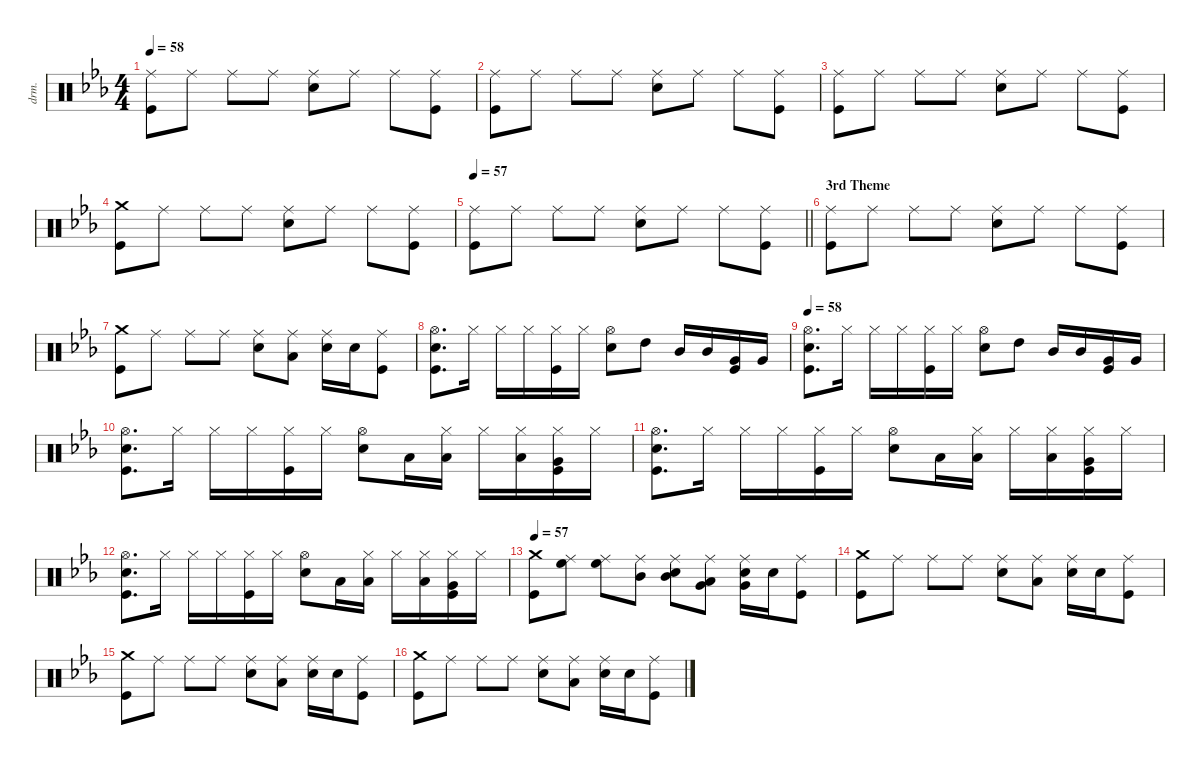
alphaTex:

\defaultSystemsLayout 4
\hideDynamics
\bracketExtendMode groupsimilarinstruments
\otherSystemsTrackNameOrientation horizontal
\track ("Percussion" "drm.") {defaultSystemsLayout 4 instrument percussion}
\staff {score}
\articulation defaults
\ts (4 4)
\tempo 58
\clef neutral
\ks cminor
("Ride (middle)"{acc forcenatural} "Kick (hit)"{acc forcenatural}).8{dy f beam Down} "Ride (middle)"{acc forcenatural}.8{beam Down} "Ride (middle)"{acc forcenatural}.8{beam Down} "Ride (middle)"{acc forcenatural}.8{beam Down} ("Snare (hit) 2"{acc forcenatural} "Ride (middle)"{acc forcenatural}).8{beam Down} "Ride (middle)"{acc forcenatural}.8{beam Down} "Ride (middle)"{acc forcenatural}.8{beam Down} ("Kick (hit)"{acc forcenatural} "Ride (middle)"{acc forcenatural}).8{beam Down} |
("Ride (middle)"{acc forcenatural} "Kick (hit)"{acc forcenatural}).8{beam Down} "Ride (middle)"{acc forcenatural}.8{beam Down} "Ride (middle)"{acc forcenatural}.8{beam Down} "Ride (middle)"{acc forcenatural}.8{beam Down} ("Snare (hit) 2"{acc forcenatural} "Ride (middle)"{acc forcenatural}).8{beam Down} "Ride (middle)"{acc forcenatural}.8{beam Down} "Ride (middle)"{acc forcenatural}.8{beam Down} ("Kick (hit)"{acc forcenatural} "Ride (middle)"{acc forcenatural}).8{beam Down} |
("Ride (middle)"{acc forcenatural} "Kick (hit)"{acc forcenatural}).8{beam Down} "Ride (middle)"{acc forcenatural}.8{beam Down} "Ride (middle)"{acc forcenatural}.8{beam Down} "Ride (middle)"{acc forcenatural}.8{beam Down} ("Snare (hit) 2"{acc forcenatural} "Ride (middle)"{acc forcenatural}).8{beam Down} "Ride (middle)"{acc forcenatural}.8{beam Down} "Ride (middle)"{acc forcenatural}.8{beam Down} ("Kick (hit)"{acc forcenatural} "Ride (middle)"{acc forcenatural}).8{beam Down} |
("Crash medium (hit)"{acc forcenatural} "Kick (hit)"{acc forcenatural}).8{beam Down} "Ride (middle)"{acc forcenatural}.8{beam Down} "Ride (middle)"{acc forcenatural}.8{beam Down} "Ride (middle)"{acc forcenatural}.8{beam Down} ("Snare (hit) 2"{acc forcenatural} "Ride (middle)"{acc forcenatural}).8{beam Down} "Ride (middle)"{acc forcenatural}.8{beam Down} "Ride (middle)"{acc forcenatural}.8{beam Down} ("Kick (hit)"{acc forcenatural} "Ride (middle)"{acc forcenatural}).8{beam Down} |
\tempo 57
\barLineRight lightlight
("Ride (middle)"{acc forcenatural} "Kick (hit)"{acc forcenatural}).8{beam Down} "Ride (middle)"{acc forcenatural}.8{beam Down} "Ride (middle)"{acc forcenatural}.8{beam Down} "Ride (middle)"{acc forcenatural}.8{beam Down} ("Snare (hit) 2"{acc forcenatural} "Ride (middle)"{acc forcenatural}).8{beam Down} "Ride (middle)"{acc forcenatural}.8{beam Down} "Ride (middle)"{acc forcenatural}.8{beam Down} ("Kick (hit)"{acc forcenatural} "Ride (middle)"{acc forcenatural}).8{beam Down} |
\section ("" "3rd Theme")
("Ride (middle)"{acc forcenatural} "Kick (hit)"{acc forcenatural}).8{beam Down} "Ride (middle)"{acc forcenatural}.8{beam Down} "Ride (middle)"{acc forcenatural}.8{beam Down} "Ride (middle)"{acc forcenatural}.8{beam Down} ("Snare (hit) 2"{acc forcenatural} "Ride (middle)"{acc forcenatural}).8{beam Down} "Ride (middle)"{acc forcenatural}.8{beam Down} "Ride (middle)"{acc forcenatural}.8{beam Down} ("Kick (hit)"{acc forcenatural} "Ride (middle)"{acc forcenatural}).8{beam Down} |
("Crash medium (hit)"{acc forcenatural} "Kick (hit)"{acc forcenatural}).8{beam Down} "Ride (middle)"{acc forcenatural}.8{beam Down} "Ride (middle)"{acc forcenatural}.8{beam Down} "Ride (middle)"{acc forcenatural}.8{beam Down} ("Snare (hit) 2"{acc forcenatural} "Ride (middle)"{acc forcenatural}).8{beam Down} ("Low Floor Tom (hit)"{acc forcenatural} "Ride (middle)"{acc forcenatural}).8{beam Down} ("Snare (hit) 2"{acc forcenatural} "Ride (middle)"{acc forcenatural}).16{beam Down} "Snare (hit) 2"{acc forcenatural}.16{beam Down} ("Kick (hit)"{acc forcenatural} "Ride (middle)"{acc forcenatural}).8{beam Down} |
("Hi-Hat (open)"{acc forcenatural} "Kick (hit)"{acc forcenatural} "Snare (hit) 2"{acc forcenatural}).8{d beam Down} "Hi-Hat (closed)"{acc forcenatural}.16{beam Down} "Hi-Hat (closed)"{acc forcenatural}.16{beam Down} "Hi-Hat (closed)"{acc forcenatural}.16{beam Down} ("Kick (hit)"{acc forcenatural} "Hi-Hat (closed)"{acc forcenatural}).16{beam Down} "Hi-Hat (closed)"{acc forcenatural}.16{beam Down} ("Snare (hit) 2"{acc forcenatural} "Hi-Hat (open)"{acc forcenatural}).8{beam Down} "High Tom (hit)"{acc forcenatural}.8{beam Down} "Mid Tom (hit)"{acc forcenatural}.16{beam Up} "Mid Tom (hit)"{acc forcenatural}.16{beam Up} ("Very Low Tom (hit)"{acc forcenatural} "Kick (hit)"{acc forcenatural}).16{beam Up} "Very Low Tom (hit)"{acc forcenatural}.16{beam Up} |
\tempo 58
("Hi-Hat (open)"{acc forcenatural} "Kick (hit)"{acc forcenatural} "Snare (hit) 2"{acc forcenatural}).8{d beam Down} "Hi-Hat (closed)"{acc forcenatural}.16{beam Down} "Hi-Hat (closed)"{acc forcenatural}.16{beam Down} "Hi-Hat (closed)"{acc forcenatural}.16{beam Down} ("Kick (hit)"{acc forcenatural} "Hi-Hat (closed)"{acc forcenatural}).16{beam Down} "Hi-Hat (closed)"{acc forcenatural}.16{beam Down} ("Snare (hit) 2"{acc forcenatural} "Hi-Hat (open)"{acc forcenatural}).8{beam Down} "High Tom (hit)"{acc forcenatural}.8{beam Down} "Mid Tom (hit)"{acc forcenatural}.16{beam Up} "Mid Tom (hit)"{acc forcenatural}.16{beam Up} ("Very Low Tom (hit)"{acc forcenatural} "Kick (hit)"{acc forcenatural}).16{beam Up} "Very Low Tom (hit)"{acc forcenatural}.16{beam Up} |
("Hi-Hat (open)"{acc forcenatural} "Kick (hit)"{acc forcenatural} "Snare (hit) 2"{acc forcenatural}).8{d beam Down} "Hi-Hat (closed)"{acc forcenatural}.16{beam Down} "Hi-Hat (closed)"{acc forcenatural}.16{beam Down} "Hi-Hat (closed)"{acc forcenatural}.16{beam Down} ("Kick (hit)"{acc forcenatural} "Hi-Hat (closed)"{acc forcenatural}).16{beam Down} "Hi-Hat (closed)"{acc forcenatural}.16{beam Down} ("Snare (hit) 2"{acc forcenatural} "Hi-Hat (open)"{acc forcenatural}).8{beam Down} "Low Tom (hit)"{acc forcenatural}.16{beam Down} ("Low Tom (hit)"{acc forcenatural} "Hi-Hat (closed)"{acc forcenatural}).16{beam Down} "Hi-Hat (closed)"{acc forcenatural}.16{beam Down} ("Low Tom (hit)"{acc forcenatural} "Hi-Hat (closed)"{acc forcenatural}).16{beam Down} ("Very Low Tom (hit)"{acc forcenatural} "Kick (hit)"{acc forcenatural} "Hi-Hat (closed)"{acc forcenatural}).16{beam Down} "Hi-Hat (closed)"{acc forcenatural}.16{beam Down} |
("Hi-Hat (open)"{acc forcenatural} "Kick (hit)"{acc forcenatural} "Snare (hit) 2"{acc forcenatural}).8{d beam Down} "Hi-Hat (closed)"{acc forcenatural}.16{beam Down} "Hi-Hat (closed)"{acc forcenatural}.16{beam Down} "Hi-Hat (closed)"{acc forcenatural}.16{beam Down} ("Kick (hit)"{acc forcenatural} "Hi-Hat (closed)"{acc forcenatural}).16{beam Down} "Hi-Hat (closed)"{acc forcenatural}.16{beam Down} ("Snare (hit) 2"{acc forcenatural} "Hi-Hat (open)"{acc forcenatural}).8{beam Down} "Low Tom (hit)"{acc forcenatural}.16{beam Down} ("Low Tom (hit)"{acc forcenatural} "Hi-Hat (closed)"{acc forcenatural}).16{beam Down} "Hi-Hat (closed)"{acc forcenatural}.16{beam Down} ("Low Tom (hit)"{acc forcenatural} "Hi-Hat (closed)"{acc forcenatural}).16{beam Down} ("Very Low Tom (hit)"{acc forcenatural} "Kick (hit)"{acc forcenatural} "Hi-Hat (closed)"{acc forcenatural}).16{beam Down} "Hi-Hat (closed)"{acc forcenatural}.16{beam Down} |
("Hi-Hat (open)"{acc forcenatural} "Kick (hit)"{acc forcenatural} "Snare (hit) 2"{acc forcenatural}).8{d beam Down} "Hi-Hat (closed)"{acc forcenatural}.16{beam Down} "Hi-Hat (closed)"{acc forcenatural}.16{beam Down} "Hi-Hat (closed)"{acc forcenatural}.16{beam Down} ("Kick (hit)"{acc forcenatural} "Hi-Hat (closed)"{acc forcenatural}).16{beam Down} "Hi-Hat (closed)"{acc forcenatural}.16{beam Down} ("Snare (hit) 2"{acc forcenatural} "Hi-Hat (open)"{acc forcenatural}).8{beam Down} "Low Tom (hit)"{acc forcenatural}.16{beam Down} ("Low Tom (hit)"{acc forcenatural} "Hi-Hat (closed)"{acc forcenatural}).16{beam Down} "Hi-Hat (closed)"{acc forcenatural}.16{beam Down} ("Low Tom (hit)"{acc forcenatural} "Hi-Hat (closed)"{acc forcenatural}).16{beam Down} ("Very Low Tom (hit)"{acc forcenatural} "Kick (hit)"{acc forcenatural} "Hi-Hat (closed)"{acc forcenatural}).16{beam Down} "Hi-Hat (closed)"{acc forcenatural}.16{beam Down} |
\tempo 57
("Crash medium (hit)"{acc forcenatural} "Kick (hit)"{acc forcenatural}).8{beam Down} ("High Floor Tom (hit)"{acc forcenatural} "Ride (middle)"{acc forcenatural}).8{beam Down} ("High Floor Tom (hit)"{acc forcenatural} "Ride (middle)"{acc forcenatural}).8{beam Down} ("Mid Tom (hit)"{acc forcenatural} "Ride (middle)"{acc forcenatural}).8{beam Down} ("Mid Tom (hit)"{acc forcenatural} "Snare (hit) 2"{acc forcenatural} "Ride (middle)"{acc forcenatural}).8{beam Down} ("Very Low Tom (hit)"{acc forcenatural} "Low Floor Tom (hit)"{acc forcenatural} "Ride (middle)"{acc forcenatural}).8{beam Down} ("Very Low Tom (hit)"{acc forcenatural} "Snare (hit) 2"{acc forcenatural} "Ride (middle)"{acc forcenatural}).16{beam Down} "Snare (hit) 2"{acc forcenatural}.16{beam Down} ("Kick (hit)"{acc forcenatural} "Ride (middle)"{acc forcenatural}).8{beam Down} |
("Crash medium (hit)"{acc forcenatural} "Kick (hit)"{acc forcenatural}).8{beam Down} "Ride (middle)"{acc forcenatural}.8{beam Down} "Ride (middle)"{acc forcenatural}.8{beam Down} "Ride (middle)"{acc forcenatural}.8{beam Down} ("Snare (hit) 2"{acc forcenatural} "Ride (middle)"{acc forcenatural}).8{beam Down} ("Low Floor Tom (hit)"{acc forcenatural} "Ride (middle)"{acc forcenatural}).8{beam Down} ("Snare (hit) 2"{acc forcenatural} "Ride (middle)"{acc forcenatural}).16{beam Down} "Snare (hit) 2"{acc forcenatural}.16{beam Down} ("Kick (hit)"{acc forcenatural} "Ride (middle)"{acc forcenatural}).8{beam Down} |
("Crash medium (hit)"{acc forcenatural} "Kick (hit)"{acc forcenatural}).8{beam Down} "Ride (middle)"{acc forcenatural}.8{beam Down} "Ride (middle)"{acc forcenatural}.8{beam Down} "Ride (middle)"{acc forcenatural}.8{beam Down} ("Snare (hit) 2"{acc forcenatural} "Ride (middle)"{acc forcenatural}).8{beam Down} ("Low Floor Tom (hit)"{acc forcenatural} "Ride (middle)"{acc forcenatural}).8{beam Down} ("Snare (hit) 2"{acc forcenatural} "Ride (middle)"{acc forcenatural}).16{beam Down} "Snare (hit) 2"{acc forcenatural}.16{beam Down} ("Kick (hit)"{acc forcenatural} "Ride (middle)"{acc forcenatural}).8{beam Down} |
("Crash medium (hit)"{acc forcenatural} "Kick (hit)"{acc forcenatural}).8{beam Down} "Ride (middle)"{acc forcenatural}.8{beam Down} "Ride (middle)"{acc forcenatural}.8{beam Down} "Ride (middle)"{acc forcenatural}.8{beam Down} ("Snare (hit) 2"{acc forcenatural} "Ride (middle)"{acc forcenatural}).8{beam Down} ("Low Floor Tom (hit)"{acc forcenatural} "Ride (middle)"{acc forcenatural}).8{beam Down} ("Snare (hit) 2"{acc forcenatural} "Ride (middle)"{acc forcenatural}).16{beam Down} "Snare (hit) 2"{acc forcenatural}.16{beam Down} ("Kick (hit)"{acc forcenatural} "Ride (middle)"{acc forcenatural}).8{beam Down}
